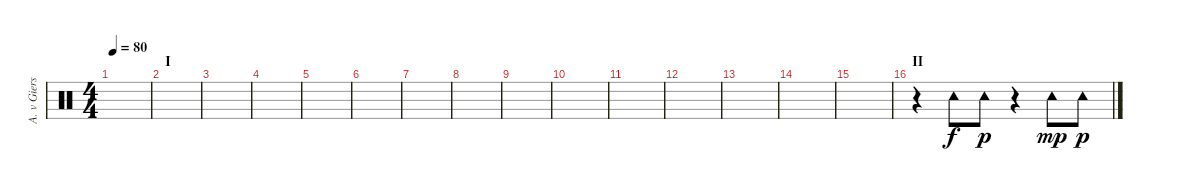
\track ("A. v Giersbergen (tambourine)" "A. v Giers") {instrument percussion}
\staff {score}
\articulation defaults
\ts (4 4)
\tempo 80
\clef neutral
\ks c
|
\section ("" "I")
|
|
|
|
|
|
|
|
|
|
|
|
|
|
\section ("" "II")
r.4 "Tambourine (hit)".8 "Tambourine (hit)".8{dy p} r.4 "Tambourine (hit)".8{dy mp} "Tambourine (hit)".8{dy p}
